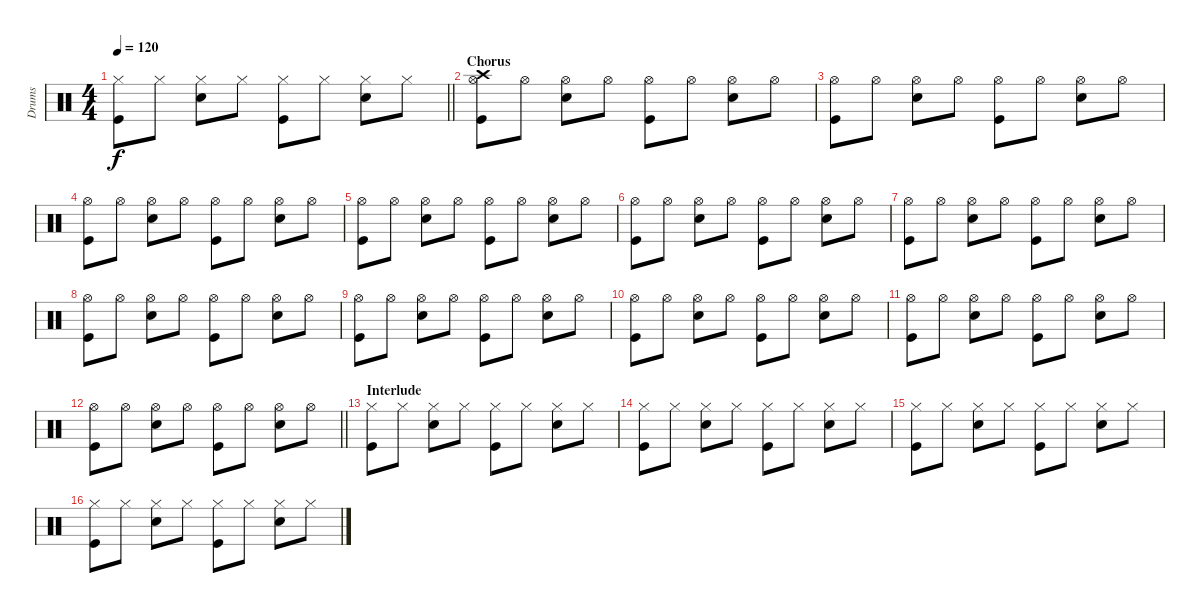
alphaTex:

\track ("Drums" "Drums") {instrument percussion}
\staff {score}
\articulation defaults
\ts (4 4)
\tempo 120
\clef neutral
\barLineRight lightlight
\ks c
("Hi-Hat (closed)" "Kick (hit)").8{dy f} "Hi-Hat (closed)".8 ("Hi-Hat (closed)" "Snare (hit) 2").8 "Hi-Hat (closed)".8 ("Hi-Hat (closed)" "Kick (hit)").8 "Hi-Hat (closed)".8 ("Hi-Hat (closed)" "Snare (hit) 2").8 "Hi-Hat (closed)".8 |
\section ("" "Chorus")
("Crash high (hit)" "Hi-Hat (open)" "Kick (hit)").8 "Hi-Hat (open)".8 ("Hi-Hat (open)" "Snare (hit) 2").8 "Hi-Hat (open)".8 ("Hi-Hat (open)" "Kick (hit)").8 "Hi-Hat (open)".8 ("Hi-Hat (open)" "Snare (hit) 2").8 "Hi-Hat (open)".8 |
("Hi-Hat (open)" "Kick (hit)").8 "Hi-Hat (open)".8 ("Hi-Hat (open)" "Snare (hit) 2").8 "Hi-Hat (open)".8 ("Hi-Hat (open)" "Kick (hit)").8 "Hi-Hat (open)".8 ("Hi-Hat (open)" "Snare (hit) 2").8 "Hi-Hat (open)".8 |
("Hi-Hat (open)" "Kick (hit)").8 "Hi-Hat (open)".8 ("Hi-Hat (open)" "Snare (hit) 2").8 "Hi-Hat (open)".8 ("Hi-Hat (open)" "Kick (hit)").8 "Hi-Hat (open)".8 ("Hi-Hat (open)" "Snare (hit) 2").8 "Hi-Hat (open)".8 |
("Hi-Hat (open)" "Kick (hit)").8 "Hi-Hat (open)".8 ("Hi-Hat (open)" "Snare (hit) 2").8 "Hi-Hat (open)".8 ("Hi-Hat (open)" "Kick (hit)").8 "Hi-Hat (open)".8 ("Hi-Hat (open)" "Snare (hit) 2").8 "Hi-Hat (open)".8 |
("Hi-Hat (open)" "Kick (hit)").8 "Hi-Hat (open)".8 ("Hi-Hat (open)" "Snare (hit) 2").8 "Hi-Hat (open)".8 ("Hi-Hat (open)" "Kick (hit)").8 "Hi-Hat (open)".8 ("Hi-Hat (open)" "Snare (hit) 2").8 "Hi-Hat (open)".8 |
("Hi-Hat (open)" "Kick (hit)").8 "Hi-Hat (open)".8 ("Hi-Hat (open)" "Snare (hit) 2").8 "Hi-Hat (open)".8 ("Hi-Hat (open)" "Kick (hit)").8 "Hi-Hat (open)".8 ("Hi-Hat (open)" "Snare (hit) 2").8 "Hi-Hat (open)".8 |
("Hi-Hat (open)" "Kick (hit)").8 "Hi-Hat (open)".8 ("Hi-Hat (open)" "Snare (hit) 2").8 "Hi-Hat (open)".8 ("Hi-Hat (open)" "Kick (hit)").8 "Hi-Hat (open)".8 ("Hi-Hat (open)" "Snare (hit) 2").8 "Hi-Hat (open)".8 |
("Hi-Hat (open)" "Kick (hit)").8 "Hi-Hat (open)".8 ("Hi-Hat (open)" "Snare (hit) 2").8 "Hi-Hat (open)".8 ("Hi-Hat (open)" "Kick (hit)").8 "Hi-Hat (open)".8 ("Hi-Hat (open)" "Snare (hit) 2").8 "Hi-Hat (open)".8 |
("Hi-Hat (open)" "Kick (hit)").8 "Hi-Hat (open)".8 ("Hi-Hat (open)" "Snare (hit) 2").8 "Hi-Hat (open)".8 ("Hi-Hat (open)" "Kick (hit)").8 "Hi-Hat (open)".8 ("Hi-Hat (open)" "Snare (hit) 2").8 "Hi-Hat (open)".8 |
("Hi-Hat (open)" "Kick (hit)").8 "Hi-Hat (open)".8 ("Hi-Hat (open)" "Snare (hit) 2").8 "Hi-Hat (open)".8 ("Hi-Hat (open)" "Kick (hit)").8 "Hi-Hat (open)".8 ("Hi-Hat (open)" "Snare (hit) 2").8 "Hi-Hat (open)".8 |
\barLineRight lightlight
("Hi-Hat (open)" "Kick (hit)").8 "Hi-Hat (open)".8 ("Hi-Hat (open)" "Snare (hit) 2").8 "Hi-Hat (open)".8 ("Hi-Hat (open)" "Kick (hit)").8 "Hi-Hat (open)".8 ("Hi-Hat (open)" "Snare (hit) 2").8 "Hi-Hat (open)".8 |
\section ("" "Interlude")
("Hi-Hat (closed)" "Kick (hit)").8 "Hi-Hat (closed)".8 ("Hi-Hat (closed)" "Snare (hit) 2").8 "Hi-Hat (closed)".8 ("Hi-Hat (closed)" "Kick (hit)").8 "Hi-Hat (closed)".8 ("Hi-Hat (closed)" "Snare (hit) 2").8 "Hi-Hat (closed)".8 |
("Hi-Hat (closed)" "Kick (hit)").8 "Hi-Hat (closed)".8 ("Hi-Hat (closed)" "Snare (hit) 2").8 "Hi-Hat (closed)".8 ("Hi-Hat (closed)" "Kick (hit)").8 "Hi-Hat (closed)".8 ("Hi-Hat (closed)" "Snare (hit) 2").8 "Hi-Hat (closed)".8 |
("Hi-Hat (closed)" "Kick (hit)").8 "Hi-Hat (closed)".8 ("Hi-Hat (closed)" "Snare (hit) 2").8 "Hi-Hat (closed)".8 ("Hi-Hat (closed)" "Kick (hit)").8 "Hi-Hat (closed)".8 ("Hi-Hat (closed)" "Snare (hit) 2").8 "Hi-Hat (closed)".8 |
("Hi-Hat (closed)" "Kick (hit)").8 "Hi-Hat (closed)".8 ("Hi-Hat (closed)" "Snare (hit) 2").8 "Hi-Hat (closed)".8 ("Hi-Hat (closed)" "Kick (hit)").8 "Hi-Hat (closed)".8 ("Hi-Hat (closed)" "Snare (hit) 2").8 "Hi-Hat (closed)".8
